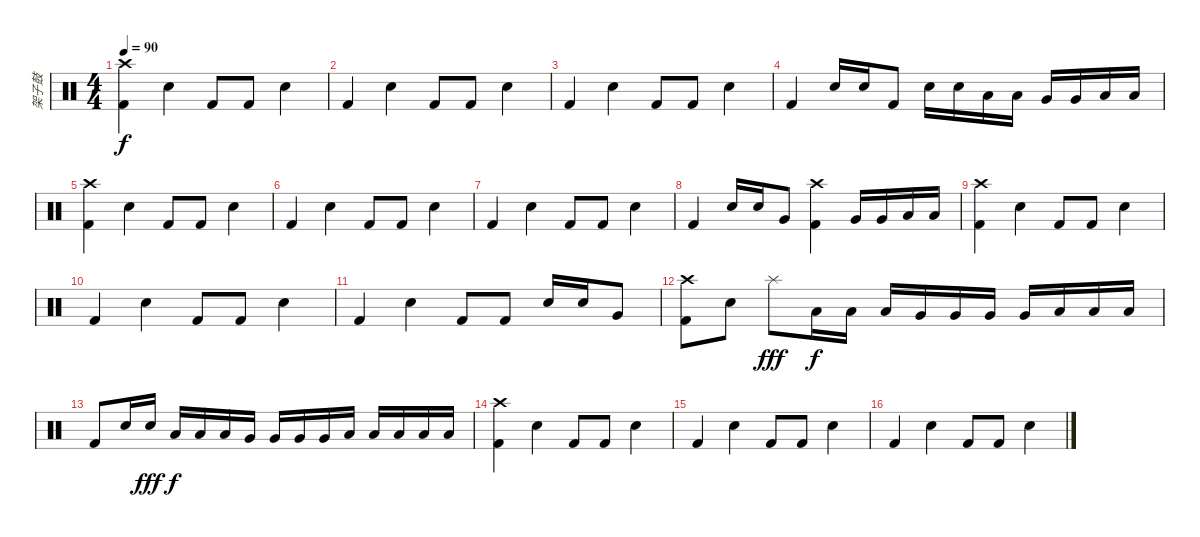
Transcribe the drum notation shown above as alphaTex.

\track ("架子鼓" "架子鼓") {instrument percussion}
\staff {score}
\articulation defaults
\ts (4 4)
\tempo 90
\clef neutral
\ks c
("Kick (hit) 2" "Crash high (hit)").4{dy f} "Electric Snare (hit)".4 "Kick (hit) 2".8 "Kick (hit) 2".8 "Electric Snare (hit)".4 |
"Kick (hit) 2".4 "Electric Snare (hit)".4 "Kick (hit) 2".8 "Kick (hit) 2".8 "Electric Snare (hit)".4 |
"Kick (hit) 2".4 "Electric Snare (hit)".4 "Kick (hit) 2".8 "Kick (hit) 2".8 "Electric Snare (hit)".4 |
"Kick (hit) 2".4 "Electric Snare (hit)".16 "Electric Snare (hit)".16 "Kick (hit) 2".8 "Electric Snare (hit)".16 "Electric Snare (hit)".16 "Low Tom (hit)".16 "Low Tom (hit)".16 "Very Low Tom (hit)".16 "Very Low Tom (hit)".16 "Low Floor Tom (hit)".16 "Low Floor Tom (hit)".16 |
("Kick (hit) 2" "Crash high (hit)").4 "Electric Snare (hit)".4 "Kick (hit) 2".8 "Kick (hit) 2".8 "Electric Snare (hit)".4 |
"Kick (hit) 2".4 "Electric Snare (hit)".4 "Kick (hit) 2".8 "Kick (hit) 2".8 "Electric Snare (hit)".4 |
"Kick (hit) 2".4 "Electric Snare (hit)".4 "Kick (hit) 2".8 "Kick (hit) 2".8 "Electric Snare (hit)".4 |
"Kick (hit) 2".4 "Electric Snare (hit)".16 "Electric Snare (hit)".16 "Very Low Tom (hit)".8 ("Kick (hit) 2" "Crash high (hit)").4 "Very Low Tom (hit)".16 "Very Low Tom (hit)".16 "Low Floor Tom (hit)".16 "Low Floor Tom (hit)".16 |
("Kick (hit) 2" "Crash high (hit)").4 "Electric Snare (hit)".4 "Kick (hit) 2".8 "Kick (hit) 2".8 "Electric Snare (hit)".4 |
"Kick (hit) 2".4 "Electric Snare (hit)".4 "Kick (hit) 2".8 "Kick (hit) 2".8 "Electric Snare (hit)".4 |
"Kick (hit) 2".4 "Electric Snare (hit)".4 "Kick (hit) 2".8 "Kick (hit) 2".8 "Electric Snare (hit)".16 "Electric Snare (hit)".16 "Very Low Tom (hit)".8 |
("Kick (hit) 2" "Crash high (hit)").8 "Electric Snare (hit)".8 "Splash (hit)".8{dy fff} "Low Tom (hit)".16{dy f} "Low Tom (hit)".16 "Low Tom (hit)".16 "Very Low Tom (hit)".16 "Very Low Tom (hit)".16 "Very Low Tom (hit)".16 "Very Low Tom (hit)".16 "Low Floor Tom (hit)".16 "Low Floor Tom (hit)".16 "Low Floor Tom (hit)".16 |
"Kick (hit) 2".8 "Electric Snare (hit)".16 "Electric Snare (hit)".16{dy fff} "Low Tom (hit)".16{dy f} "Low Tom (hit)".16 "Low Tom (hit)".16 "Very Low Tom (hit)".16 "Very Low Tom (hit)".16 "Very Low Tom (hit)".16 "Very Low Tom (hit)".16 "Low Floor Tom (hit)".16 "Low Floor Tom (hit)".16 "Low Floor Tom (hit)".16 "Low Floor Tom (hit)".16 "Low Floor Tom (hit)".16 |
("Kick (hit) 2" "Crash high (hit)").4 "Electric Snare (hit)".4 "Kick (hit) 2".8 "Kick (hit) 2".8 "Electric Snare (hit)".4 |
"Kick (hit) 2".4 "Electric Snare (hit)".4 "Kick (hit) 2".8 "Kick (hit) 2".8 "Electric Snare (hit)".4 |
"Kick (hit) 2".4 "Electric Snare (hit)".4 "Kick (hit) 2".8 "Kick (hit) 2".8 "Electric Snare (hit)".4
